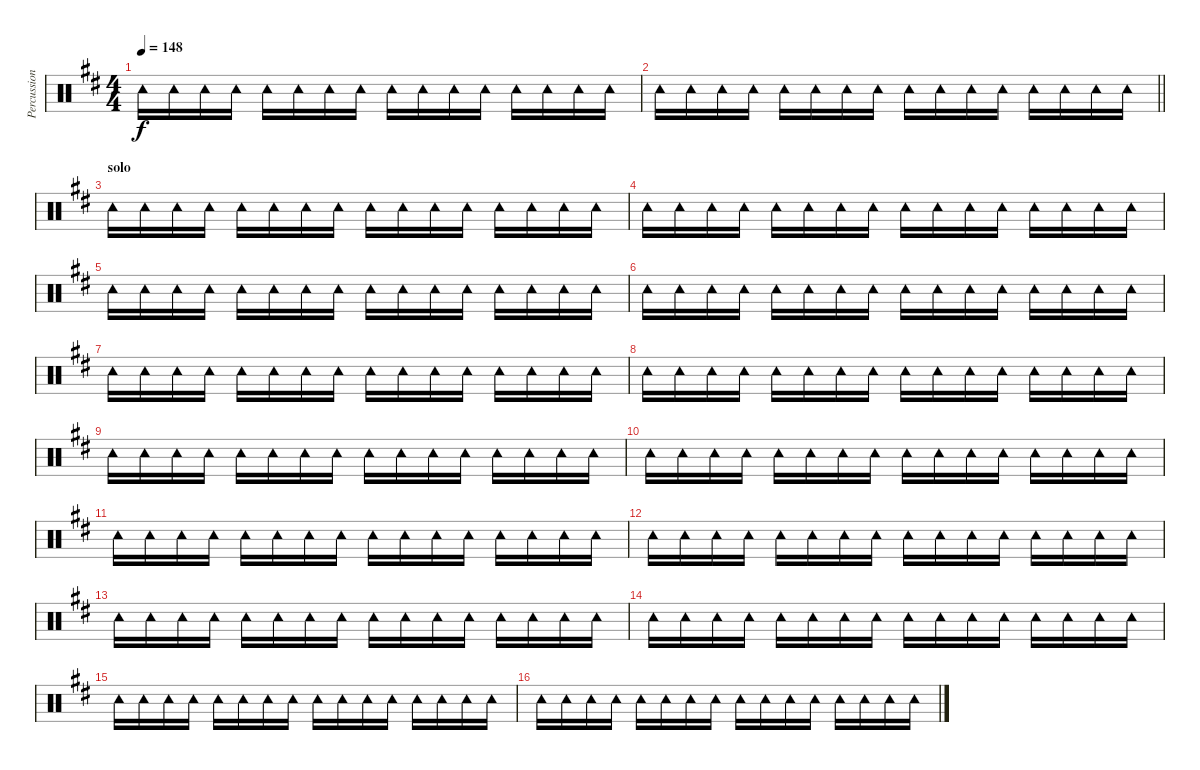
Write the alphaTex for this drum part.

\track ("Percussioni" "Percussion") {instrument percussion}
\staff {score}
\articulation defaults
\ts (4 4)
\tempo 148
\clef neutral
\ks d "Tambourine (hit)".16{dy f} "Tambourine (hit)".16 "Tambourine (hit)".16 "Tambourine (hit)".16 "Tambourine (hit)".16 "Tambourine (hit)".16 "Tambourine (hit)".16 "Tambourine (hit)".16 "Tambourine (hit)".16 "Tambourine (hit)".16 "Tambourine (hit)".16 "Tambourine (hit)".16 "Tambourine (hit)".16 "Tambourine (hit)".16 "Tambourine (hit)".16 "Tambourine (hit)".16
|
\barLineRight lightlight "Tambourine (hit)".16 "Tambourine (hit)".16 "Tambourine (hit)".16 "Tambourine (hit)".16 "Tambourine (hit)".16 "Tambourine (hit)".16 "Tambourine (hit)".16 "Tambourine (hit)".16 "Tambourine (hit)".16 "Tambourine (hit)".16 "Tambourine (hit)".16 "Tambourine (hit)".16 "Tambourine (hit)".16 "Tambourine (hit)".16 "Tambourine (hit)".16 "Tambourine (hit)".16
|
\section ("" "solo")
"Tambourine (hit)".16 "Tambourine (hit)".16 "Tambourine (hit)".16 "Tambourine (hit)".16 "Tambourine (hit)".16 "Tambourine (hit)".16 "Tambourine (hit)".16 "Tambourine (hit)".16 "Tambourine (hit)".16 "Tambourine (hit)".16 "Tambourine (hit)".16 "Tambourine (hit)".16 "Tambourine (hit)".16 "Tambourine (hit)".16 "Tambourine (hit)".16 "Tambourine (hit)".16 |
"Tambourine (hit)".16 "Tambourine (hit)".16 "Tambourine (hit)".16 "Tambourine (hit)".16 "Tambourine (hit)".16 "Tambourine (hit)".16 "Tambourine (hit)".16 "Tambourine (hit)".16 "Tambourine (hit)".16 "Tambourine (hit)".16 "Tambourine (hit)".16 "Tambourine (hit)".16 "Tambourine (hit)".16 "Tambourine (hit)".16 "Tambourine (hit)".16 "Tambourine (hit)".16 |
"Tambourine (hit)".16 "Tambourine (hit)".16 "Tambourine (hit)".16 "Tambourine (hit)".16 "Tambourine (hit)".16 "Tambourine (hit)".16 "Tambourine (hit)".16 "Tambourine (hit)".16 "Tambourine (hit)".16 "Tambourine (hit)".16 "Tambourine (hit)".16 "Tambourine (hit)".16 "Tambourine (hit)".16 "Tambourine (hit)".16 "Tambourine (hit)".16 "Tambourine (hit)".16 |
"Tambourine (hit)".16 "Tambourine (hit)".16 "Tambourine (hit)".16 "Tambourine (hit)".16 "Tambourine (hit)".16 "Tambourine (hit)".16 "Tambourine (hit)".16 "Tambourine (hit)".16 "Tambourine (hit)".16 "Tambourine (hit)".16 "Tambourine (hit)".16 "Tambourine (hit)".16 "Tambourine (hit)".16 "Tambourine (hit)".16 "Tambourine (hit)".16 "Tambourine (hit)".16 |
"Tambourine (hit)".16 "Tambourine (hit)".16 "Tambourine (hit)".16 "Tambourine (hit)".16 "Tambourine (hit)".16 "Tambourine (hit)".16 "Tambourine (hit)".16 "Tambourine (hit)".16 "Tambourine (hit)".16 "Tambourine (hit)".16 "Tambourine (hit)".16 "Tambourine (hit)".16 "Tambourine (hit)".16 "Tambourine (hit)".16 "Tambourine (hit)".16 "Tambourine (hit)".16 |
"Tambourine (hit)".16 "Tambourine (hit)".16 "Tambourine (hit)".16 "Tambourine (hit)".16 "Tambourine (hit)".16 "Tambourine (hit)".16 "Tambourine (hit)".16 "Tambourine (hit)".16 "Tambourine (hit)".16 "Tambourine (hit)".16 "Tambourine (hit)".16 "Tambourine (hit)".16 "Tambourine (hit)".16 "Tambourine (hit)".16 "Tambourine (hit)".16 "Tambourine (hit)".16 |
"Tambourine (hit)".16 "Tambourine (hit)".16 "Tambourine (hit)".16 "Tambourine (hit)".16 "Tambourine (hit)".16 "Tambourine (hit)".16 "Tambourine (hit)".16 "Tambourine (hit)".16 "Tambourine (hit)".16 "Tambourine (hit)".16 "Tambourine (hit)".16 "Tambourine (hit)".16 "Tambourine (hit)".16 "Tambourine (hit)".16 "Tambourine (hit)".16 "Tambourine (hit)".16 |
"Tambourine (hit)".16 "Tambourine (hit)".16 "Tambourine (hit)".16 "Tambourine (hit)".16 "Tambourine (hit)".16 "Tambourine (hit)".16 "Tambourine (hit)".16 "Tambourine (hit)".16 "Tambourine (hit)".16 "Tambourine (hit)".16 "Tambourine (hit)".16 "Tambourine (hit)".16 "Tambourine (hit)".16 "Tambourine (hit)".16 "Tambourine (hit)".16 "Tambourine (hit)".16 |
"Tambourine (hit)".16 "Tambourine (hit)".16 "Tambourine (hit)".16 "Tambourine (hit)".16 "Tambourine (hit)".16 "Tambourine (hit)".16 "Tambourine (hit)".16 "Tambourine (hit)".16 "Tambourine (hit)".16 "Tambourine (hit)".16 "Tambourine (hit)".16 "Tambourine (hit)".16 "Tambourine (hit)".16 "Tambourine (hit)".16 "Tambourine (hit)".16 "Tambourine (hit)".16 |
"Tambourine (hit)".16 "Tambourine (hit)".16 "Tambourine (hit)".16 "Tambourine (hit)".16 "Tambourine (hit)".16 "Tambourine (hit)".16 "Tambourine (hit)".16 "Tambourine (hit)".16 "Tambourine (hit)".16 "Tambourine (hit)".16 "Tambourine (hit)".16 "Tambourine (hit)".16 "Tambourine (hit)".16 "Tambourine (hit)".16 "Tambourine (hit)".16 "Tambourine (hit)".16 |
"Tambourine (hit)".16 "Tambourine (hit)".16 "Tambourine (hit)".16 "Tambourine (hit)".16 "Tambourine (hit)".16 "Tambourine (hit)".16 "Tambourine (hit)".16 "Tambourine (hit)".16 "Tambourine (hit)".16 "Tambourine (hit)".16 "Tambourine (hit)".16 "Tambourine (hit)".16 "Tambourine (hit)".16 "Tambourine (hit)".16 "Tambourine (hit)".16 "Tambourine (hit)".16 |
"Tambourine (hit)".16 "Tambourine (hit)".16 "Tambourine (hit)".16 "Tambourine (hit)".16 "Tambourine (hit)".16 "Tambourine (hit)".16 "Tambourine (hit)".16 "Tambourine (hit)".16 "Tambourine (hit)".16 "Tambourine (hit)".16 "Tambourine (hit)".16 "Tambourine (hit)".16 "Tambourine (hit)".16 "Tambourine (hit)".16 "Tambourine (hit)".16 "Tambourine (hit)".16 |
"Tambourine (hit)".16 "Tambourine (hit)".16 "Tambourine (hit)".16 "Tambourine (hit)".16 "Tambourine (hit)".16 "Tambourine (hit)".16 "Tambourine (hit)".16 "Tambourine (hit)".16 "Tambourine (hit)".16 "Tambourine (hit)".16 "Tambourine (hit)".16 "Tambourine (hit)".16 "Tambourine (hit)".16 "Tambourine (hit)".16 "Tambourine (hit)".16 "Tambourine (hit)".16 |
"Tambourine (hit)".16 "Tambourine (hit)".16 "Tambourine (hit)".16 "Tambourine (hit)".16 "Tambourine (hit)".16 "Tambourine (hit)".16 "Tambourine (hit)".16 "Tambourine (hit)".16 "Tambourine (hit)".16 "Tambourine (hit)".16 "Tambourine (hit)".16 "Tambourine (hit)".16 "Tambourine (hit)".16 "Tambourine (hit)".16 "Tambourine (hit)".16 "Tambourine (hit)".16
